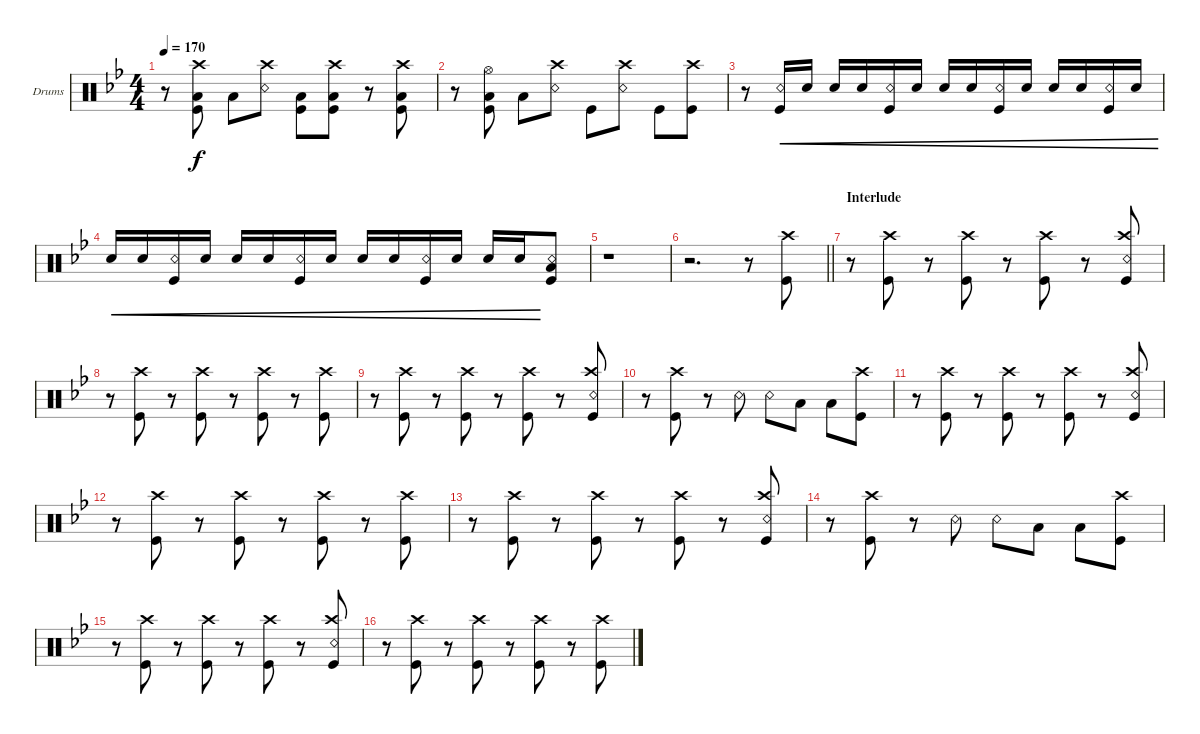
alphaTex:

\defaultSystemsLayout 4
\bracketExtendMode groupsimilarinstruments
\firstSystemTrackNameOrientation horizontal
\otherSystemsTrackNameOrientation horizontal
\track ("Drums" "Drums") {instrument percussion}
\staff {score}
\articulation defaults
\ts (4 4)
\tempo 170
\clef neutral
\ks bb
r.8{dy f} ("Kick (hit)" "Low Tom (hit)" "Crash high (hit)").8 "Low Tom (hit)".8 ("Snare (rim shot)" "Crash high (hit)").8 ("Kick (hit)" "Low Tom (hit)").8 ("Kick (hit)" "Low Tom (hit)" "Crash high (hit)").8 r.8 ("Kick (hit)" "Low Tom (hit)" "Crash high (hit)").8 |
r.8 ("Kick (hit)" "Low Tom (hit)" "Hi-Hat (open)").8 "Low Tom (hit)".8 ("Snare (rim shot)" "Crash high (hit)").8 "Kick (hit)".8 ("Snare (rim shot)" "Crash high (hit)").8 "Kick (hit)".8 ("Kick (hit)" "Crash high (hit)").8 |
r.8 ("Snare (rim shot)" "Kick (hit)").16{cre} "Snare (hit) 2".16{cre} "Snare (hit) 2".16{cre} "Snare (hit) 2".16{cre} ("Snare (rim shot)" "Kick (hit)").16{cre} "Snare (hit) 2".16{cre} "Snare (hit) 2".16{cre} "Snare (hit) 2".16{cre} ("Snare (rim shot)" "Kick (hit)").16{cre} "Snare (hit) 2".16{cre} "Snare (hit) 2".16{cre} "Snare (hit) 2".16{cre} ("Snare (rim shot)" "Kick (hit)").16{cre} "Snare (hit) 2".16{cre} |
"Snare (hit) 2".16{cre} "Snare (hit) 2".16{cre} ("Snare (rim shot)" "Kick (hit)").16{cre} "Snare (hit) 2".16{cre} "Snare (hit) 2".16{cre} "Snare (hit) 2".16{cre} ("Snare (rim shot)" "Kick (hit)").16{cre} "Snare (hit) 2".16{cre} "Snare (hit) 2".16{cre} "Snare (hit) 2".16{cre} ("Snare (rim shot)" "Kick (hit)").16{cre} "Snare (hit) 2".16{cre} "Snare (hit) 2".16{cre} "Snare (hit) 2".16{cre} ("Kick (hit)" "Low Tom (hit)" "Snare (rim shot)").8 |
r.1 |
\barLineRight lightlight
r.2{d} r.8 ("Kick (hit)" "Crash high (hit)").8 |
\section ("" "Interlude")
r.8 ("Kick (hit)" "Crash high (hit)").8 r.8 ("Kick (hit)" "Crash high (hit)").8 r.8 ("Kick (hit)" "Crash high (hit)").8 r.8 ("Kick (hit)" "Crash high (hit)" "Snare (rim shot)").8 |
r.8 ("Kick (hit)" "Crash high (hit)").8 r.8 ("Kick (hit)" "Crash high (hit)").8 r.8 ("Kick (hit)" "Crash high (hit)").8 r.8 ("Kick (hit)" "Crash high (hit)").8 |
r.8 ("Kick (hit)" "Crash high (hit)").8 r.8 ("Kick (hit)" "Crash high (hit)").8 r.8 ("Kick (hit)" "Crash high (hit)").8 r.8 ("Kick (hit)" "Crash high (hit)" "Snare (rim shot)").8 |
r.8 ("Kick (hit)" "Crash high (hit)").8 r.8 "Snare (rim shot)".8 "Snare (rim shot)".8 "Low Tom (hit)".8 "Low Tom (hit)".8 ("Kick (hit)" "Crash high (hit)").8 |
r.8 ("Kick (hit)" "Crash high (hit)").8 r.8 ("Kick (hit)" "Crash high (hit)").8 r.8 ("Kick (hit)" "Crash high (hit)").8 r.8 ("Kick (hit)" "Crash high (hit)" "Snare (rim shot)").8 |
r.8 ("Kick (hit)" "Crash high (hit)").8 r.8 ("Kick (hit)" "Crash high (hit)").8 r.8 ("Kick (hit)" "Crash high (hit)").8 r.8 ("Kick (hit)" "Crash high (hit)").8 |
r.8 ("Kick (hit)" "Crash high (hit)").8 r.8 ("Kick (hit)" "Crash high (hit)").8 r.8 ("Kick (hit)" "Crash high (hit)").8 r.8 ("Kick (hit)" "Crash high (hit)" "Snare (rim shot)").8 |
r.8 ("Kick (hit)" "Crash high (hit)").8 r.8 "Snare (rim shot)".8 "Snare (rim shot)".8 "Low Tom (hit)".8 "Low Tom (hit)".8 ("Kick (hit)" "Crash high (hit)").8 |
r.8 ("Kick (hit)" "Crash high (hit)").8 r.8 ("Kick (hit)" "Crash high (hit)").8 r.8 ("Kick (hit)" "Crash high (hit)").8 r.8 ("Kick (hit)" "Crash high (hit)" "Snare (rim shot)").8 |
r.8 ("Kick (hit)" "Crash high (hit)").8 r.8 ("Kick (hit)" "Crash high (hit)").8 r.8 ("Kick (hit)" "Crash high (hit)").8 r.8 ("Kick (hit)" "Crash high (hit)").8
